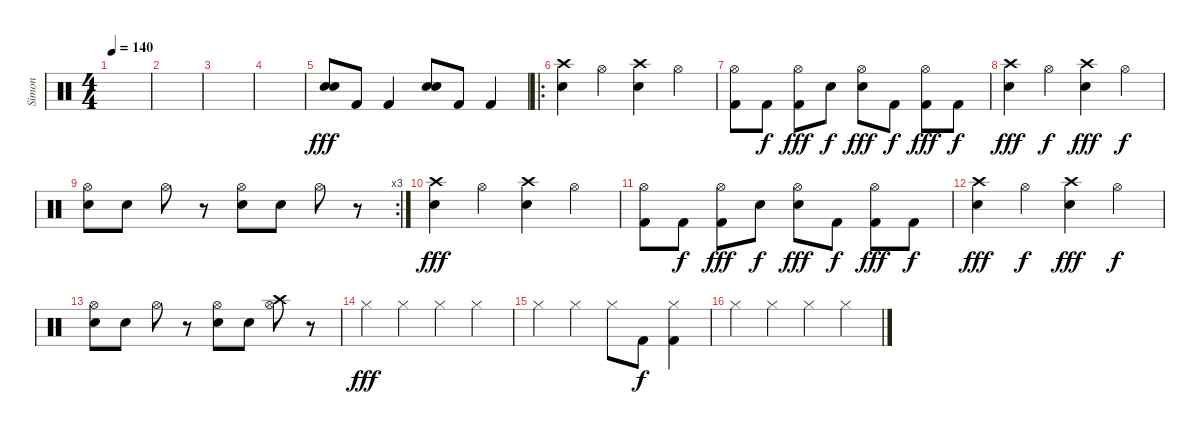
\track ("Simon" "Simon") {instrument percussion}
\staff {score}
\articulation defaults
\ts (4 4)
\tempo 140
\clef neutral
\ks c
|
|
|
|
("Electric Snare (hit)" "Snare (hit) 2").8{dy fff} "Kick (hit) 2".8 "Kick (hit) 2".4 ("Electric Snare (hit)" "Snare (hit) 2").8 "Kick (hit) 2".8 "Kick (hit) 2".4 |
\ro
("Crash high (hit)" "Electric Snare (hit)").4 "Hi-Hat (open)".4 ("Crash high (hit)" "Electric Snare (hit)").4 "Hi-Hat (open)".4 |
("Kick (hit) 2" "Hi-Hat (open)").8 "Kick (hit) 2".8{dy f} ("Kick (hit) 2" "Hi-Hat (open)").8{dy fff} "Electric Snare (hit)".8{dy f} ("Electric Snare (hit)" "Hi-Hat (open)").8{dy fff} "Kick (hit) 2".8{dy f} ("Kick (hit) 2" "Hi-Hat (open)").8{dy fff} "Kick (hit) 2".8{dy f} |
("Crash high (hit)" "Electric Snare (hit)").4{dy fff} "Hi-Hat (open)".4{dy f} ("Crash high (hit)" "Electric Snare (hit)").4{dy fff} "Hi-Hat (open)".4{dy f} |
\rc 3
("Electric Snare (hit)" "Hi-Hat (open)").8 "Electric Snare (hit)".8 "Hi-Hat (open)".8 r.8 ("Electric Snare (hit)" "Hi-Hat (open)").8 "Electric Snare (hit)".8 "Hi-Hat (open)".8 r.8 |
("Crash high (hit)" "Electric Snare (hit)").4{dy fff} "Hi-Hat (open)".4 ("Crash high (hit)" "Electric Snare (hit)").4 "Hi-Hat (open)".4 |
("Kick (hit) 2" "Hi-Hat (open)").8 "Kick (hit) 2".8{dy f} ("Kick (hit) 2" "Hi-Hat (open)").8{dy fff} "Electric Snare (hit)".8{dy f} ("Electric Snare (hit)" "Hi-Hat (open)").8{dy fff} "Kick (hit) 2".8{dy f} ("Kick (hit) 2" "Hi-Hat (open)").8{dy fff} "Kick (hit) 2".8{dy f} |
("Crash high (hit)" "Electric Snare (hit)").4{dy fff} "Hi-Hat (open)".4{dy f} ("Crash high (hit)" "Electric Snare (hit)").4{dy fff} "Hi-Hat (open)".4{dy f} |
("Electric Snare (hit)" "Hi-Hat (open)").8 "Electric Snare (hit)".8 "Hi-Hat (open)".8 r.8 ("Electric Snare (hit)" "Hi-Hat (open)").8 "Electric Snare (hit)".8 ("Crash high (hit)" "Hi-Hat (open)").8 r.8 |
"Hi-Hat (closed)".4{dy fff} "Hi-Hat (closed)".4 "Hi-Hat (closed)".4 "Hi-Hat (closed)".4 |
"Hi-Hat (closed)".4 "Hi-Hat (closed)".4 "Hi-Hat (closed)".8 "Kick (hit) 2".8{dy f} ("Kick (hit) 2" "Hi-Hat (closed)").4 |
"Hi-Hat (closed)".4 "Hi-Hat (closed)".4 "Hi-Hat (closed)".4 "Hi-Hat (closed)".4
